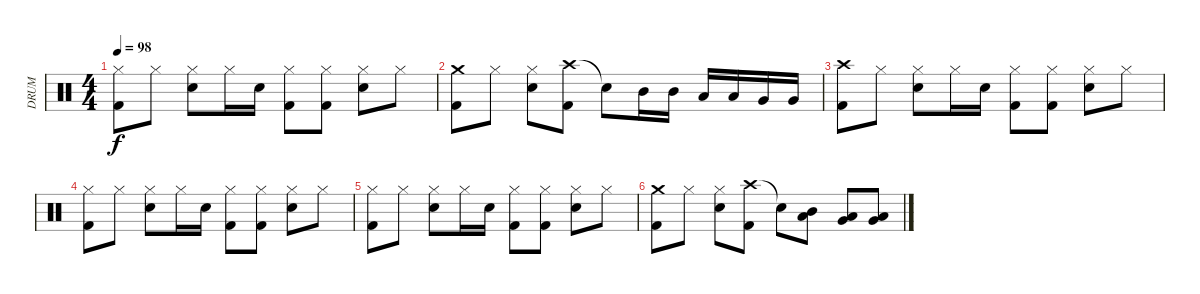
\track ("DRUM" "DRUM") {instrument percussion}
\staff {score}
\articulation defaults
\ts (4 4)
\tempo 98
\clef neutral
\ks c
("Hi-Hat (closed)" "Kick (hit) 2").8{dy f} "Hi-Hat (closed)".8 ("Snare (hit) 2" "Hi-Hat (closed)").8 "Hi-Hat (closed)".16 "Snare (hit) 2".16 ("Hi-Hat (closed)" "Kick (hit) 2").8 ("Hi-Hat (closed)" "Kick (hit) 2").8 ("Snare (hit) 2" "Hi-Hat (closed)").8 "Hi-Hat (closed)".8 |
("Crash medium (hit)" "Kick (hit) 2").8 "Hi-Hat (closed)".8 ("Snare (hit) 2" "Hi-Hat (closed)").8 ("Crash high (hit)" "Kick (hit) 2").8 "Snare (hit)"{t}.8 "Mid Tom (hit)".16 "Mid Tom (hit)".16 "Low Tom (hit)".16 "Low Tom (hit)".16 "Very Low Tom (hit)".16 "Very Low Tom (hit)".16 |
("Crash high (hit)" "Kick (hit) 2").8 "Hi-Hat (closed)".8 ("Snare (hit) 2" "Hi-Hat (closed)").8 "Hi-Hat (closed)".16 "Snare (hit) 2".16 ("Hi-Hat (closed)" "Kick (hit) 2").8 ("Hi-Hat (closed)" "Kick (hit) 2").8 ("Snare (hit) 2" "Hi-Hat (closed)").8 "Hi-Hat (closed)".8 |
("Hi-Hat (closed)" "Kick (hit) 2").8 "Hi-Hat (closed)".8 ("Snare (hit) 2" "Hi-Hat (closed)").8 "Hi-Hat (closed)".16 "Snare (hit) 2".16 ("Hi-Hat (closed)" "Kick (hit) 2").8 ("Hi-Hat (closed)" "Kick (hit) 2").8 ("Snare (hit) 2" "Hi-Hat (closed)").8 "Hi-Hat (closed)".8 |
("Hi-Hat (closed)" "Kick (hit) 2").8 "Hi-Hat (closed)".8 ("Snare (hit) 2" "Hi-Hat (closed)").8 "Hi-Hat (closed)".16 "Snare (hit) 2".16 ("Hi-Hat (closed)" "Kick (hit) 2").8{volume 1} ("Hi-Hat (closed)" "Kick (hit) 2").8 ("Snare (hit) 2" "Hi-Hat (closed)").8 "Hi-Hat (closed)".8 |
("Crash medium (hit)" "Kick (hit) 2").8 "Hi-Hat (closed)".8 ("Snare (hit) 2" "Hi-Hat (closed)").8 ("Crash high (hit)" "Kick (hit) 2").8 "Snare (hit)"{t}.8 ("Mid Tom (hit)" "Low Tom (hit)").8 ("Low Tom (hit)" "Very Low Tom (hit)").8 ("Very Low Tom (hit)" "Low Floor Tom (hit)").8
